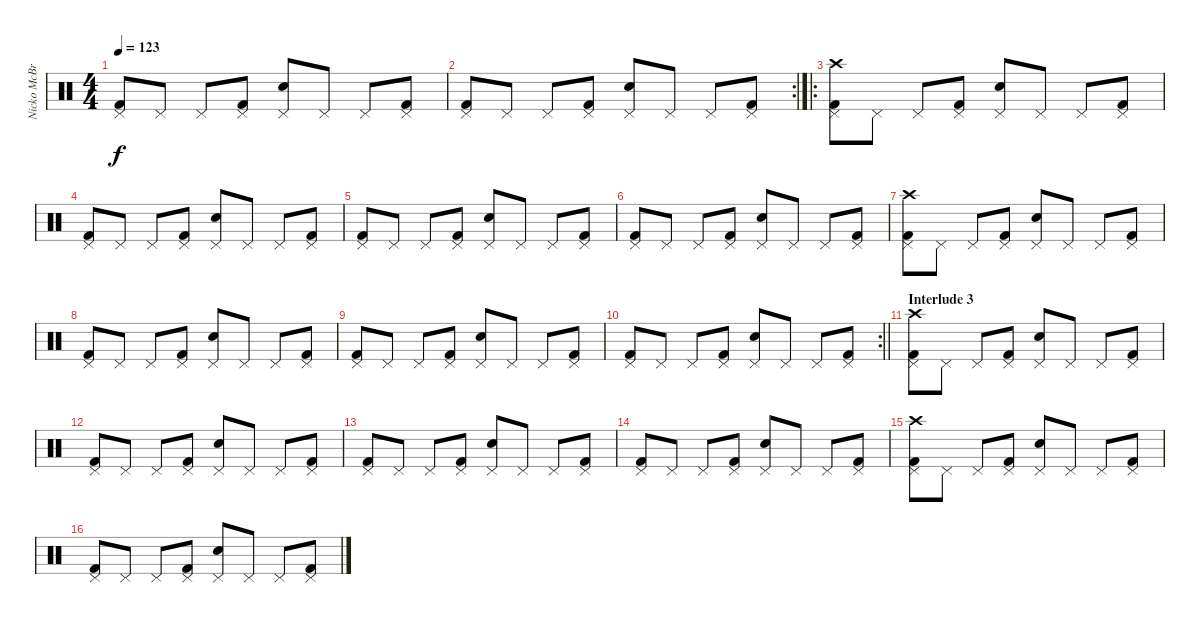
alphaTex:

\track ("Nicko McBrain" "Nicko McBr") {instrument percussion}
\staff {score}
\articulation defaults
\ts (4 4)
\tempo 123
\clef neutral
\ks c
("Kick (hit) 2" "Pedal Hi-Hat (hit)").8{dy f} "Pedal Hi-Hat (hit)".8 "Pedal Hi-Hat (hit)".8 ("Kick (hit) 2" "Pedal Hi-Hat (hit)").8 ("Snare (hit) 2" "Pedal Hi-Hat (hit)").8 "Pedal Hi-Hat (hit)".8 "Pedal Hi-Hat (hit)".8 ("Kick (hit) 2" "Pedal Hi-Hat (hit)").8 |
\rc 2
("Kick (hit) 2" "Pedal Hi-Hat (hit)").8 "Pedal Hi-Hat (hit)".8 "Pedal Hi-Hat (hit)".8 ("Kick (hit) 2" "Pedal Hi-Hat (hit)").8 ("Snare (hit) 2" "Pedal Hi-Hat (hit)").8 "Pedal Hi-Hat (hit)".8 "Pedal Hi-Hat (hit)".8 ("Kick (hit) 2" "Pedal Hi-Hat (hit)").8 |
\ro
("Kick (hit) 2" "Pedal Hi-Hat (hit)" "Crash high (hit)").8 "Pedal Hi-Hat (hit)".8 "Pedal Hi-Hat (hit)".8 ("Kick (hit) 2" "Pedal Hi-Hat (hit)").8 ("Snare (hit) 2" "Pedal Hi-Hat (hit)").8 "Pedal Hi-Hat (hit)".8 "Pedal Hi-Hat (hit)".8 ("Kick (hit) 2" "Pedal Hi-Hat (hit)").8 |
("Kick (hit) 2" "Pedal Hi-Hat (hit)").8 "Pedal Hi-Hat (hit)".8 "Pedal Hi-Hat (hit)".8 ("Kick (hit) 2" "Pedal Hi-Hat (hit)").8 ("Snare (hit) 2" "Pedal Hi-Hat (hit)").8 "Pedal Hi-Hat (hit)".8 "Pedal Hi-Hat (hit)".8 ("Kick (hit) 2" "Pedal Hi-Hat (hit)").8 |
("Kick (hit) 2" "Pedal Hi-Hat (hit)").8 "Pedal Hi-Hat (hit)".8 "Pedal Hi-Hat (hit)".8 ("Kick (hit) 2" "Pedal Hi-Hat (hit)").8 ("Snare (hit) 2" "Pedal Hi-Hat (hit)").8 "Pedal Hi-Hat (hit)".8 "Pedal Hi-Hat (hit)".8 ("Kick (hit) 2" "Pedal Hi-Hat (hit)").8 |
("Kick (hit) 2" "Pedal Hi-Hat (hit)").8 "Pedal Hi-Hat (hit)".8 "Pedal Hi-Hat (hit)".8 ("Kick (hit) 2" "Pedal Hi-Hat (hit)").8 ("Snare (hit) 2" "Pedal Hi-Hat (hit)").8 "Pedal Hi-Hat (hit)".8 "Pedal Hi-Hat (hit)".8 ("Kick (hit) 2" "Pedal Hi-Hat (hit)").8 |
("Kick (hit) 2" "Pedal Hi-Hat (hit)" "Crash high (hit)").8 "Pedal Hi-Hat (hit)".8 "Pedal Hi-Hat (hit)".8 ("Kick (hit) 2" "Pedal Hi-Hat (hit)").8 ("Snare (hit) 2" "Pedal Hi-Hat (hit)").8 "Pedal Hi-Hat (hit)".8 "Pedal Hi-Hat (hit)".8 ("Kick (hit) 2" "Pedal Hi-Hat (hit)").8 |
("Kick (hit) 2" "Pedal Hi-Hat (hit)").8 "Pedal Hi-Hat (hit)".8 "Pedal Hi-Hat (hit)".8 ("Kick (hit) 2" "Pedal Hi-Hat (hit)").8 ("Snare (hit) 2" "Pedal Hi-Hat (hit)").8 "Pedal Hi-Hat (hit)".8 "Pedal Hi-Hat (hit)".8 ("Kick (hit) 2" "Pedal Hi-Hat (hit)").8 |
("Kick (hit) 2" "Pedal Hi-Hat (hit)").8 "Pedal Hi-Hat (hit)".8 "Pedal Hi-Hat (hit)".8 ("Kick (hit) 2" "Pedal Hi-Hat (hit)").8 ("Snare (hit) 2" "Pedal Hi-Hat (hit)").8 "Pedal Hi-Hat (hit)".8 "Pedal Hi-Hat (hit)".8 ("Kick (hit) 2" "Pedal Hi-Hat (hit)").8 |
\rc 2
\barLineRight lightlight
("Kick (hit) 2" "Pedal Hi-Hat (hit)").8 "Pedal Hi-Hat (hit)".8 "Pedal Hi-Hat (hit)".8 ("Kick (hit) 2" "Pedal Hi-Hat (hit)").8 ("Snare (hit) 2" "Pedal Hi-Hat (hit)").8 "Pedal Hi-Hat (hit)".8 "Pedal Hi-Hat (hit)".8 ("Kick (hit) 2" "Pedal Hi-Hat (hit)").8 |
\section ("" "Interlude 3")
("Kick (hit) 2" "Pedal Hi-Hat (hit)" "Crash high (hit)").8 "Pedal Hi-Hat (hit)".8 "Pedal Hi-Hat (hit)".8 ("Kick (hit) 2" "Pedal Hi-Hat (hit)").8 ("Snare (hit) 2" "Pedal Hi-Hat (hit)").8 "Pedal Hi-Hat (hit)".8 "Pedal Hi-Hat (hit)".8 ("Kick (hit) 2" "Pedal Hi-Hat (hit)").8 |
("Kick (hit) 2" "Pedal Hi-Hat (hit)").8 "Pedal Hi-Hat (hit)".8 "Pedal Hi-Hat (hit)".8 ("Kick (hit) 2" "Pedal Hi-Hat (hit)").8 ("Snare (hit) 2" "Pedal Hi-Hat (hit)").8 "Pedal Hi-Hat (hit)".8 "Pedal Hi-Hat (hit)".8 ("Kick (hit) 2" "Pedal Hi-Hat (hit)").8 |
("Kick (hit) 2" "Pedal Hi-Hat (hit)").8 "Pedal Hi-Hat (hit)".8 "Pedal Hi-Hat (hit)".8 ("Kick (hit) 2" "Pedal Hi-Hat (hit)").8 ("Snare (hit) 2" "Pedal Hi-Hat (hit)").8 "Pedal Hi-Hat (hit)".8 "Pedal Hi-Hat (hit)".8 ("Kick (hit) 2" "Pedal Hi-Hat (hit)").8 |
("Kick (hit) 2" "Pedal Hi-Hat (hit)").8 "Pedal Hi-Hat (hit)".8 "Pedal Hi-Hat (hit)".8 ("Kick (hit) 2" "Pedal Hi-Hat (hit)").8 ("Snare (hit) 2" "Pedal Hi-Hat (hit)").8 "Pedal Hi-Hat (hit)".8 "Pedal Hi-Hat (hit)".8 ("Kick (hit) 2" "Pedal Hi-Hat (hit)").8 |
("Kick (hit) 2" "Pedal Hi-Hat (hit)" "Crash high (hit)").8 "Pedal Hi-Hat (hit)".8 "Pedal Hi-Hat (hit)".8 ("Kick (hit) 2" "Pedal Hi-Hat (hit)").8 ("Snare (hit) 2" "Pedal Hi-Hat (hit)").8 "Pedal Hi-Hat (hit)".8 "Pedal Hi-Hat (hit)".8 ("Kick (hit) 2" "Pedal Hi-Hat (hit)").8 |
("Kick (hit) 2" "Pedal Hi-Hat (hit)").8 "Pedal Hi-Hat (hit)".8 "Pedal Hi-Hat (hit)".8 ("Kick (hit) 2" "Pedal Hi-Hat (hit)").8 ("Snare (hit) 2" "Pedal Hi-Hat (hit)").8 "Pedal Hi-Hat (hit)".8 "Pedal Hi-Hat (hit)".8 ("Kick (hit) 2" "Pedal Hi-Hat (hit)").8
